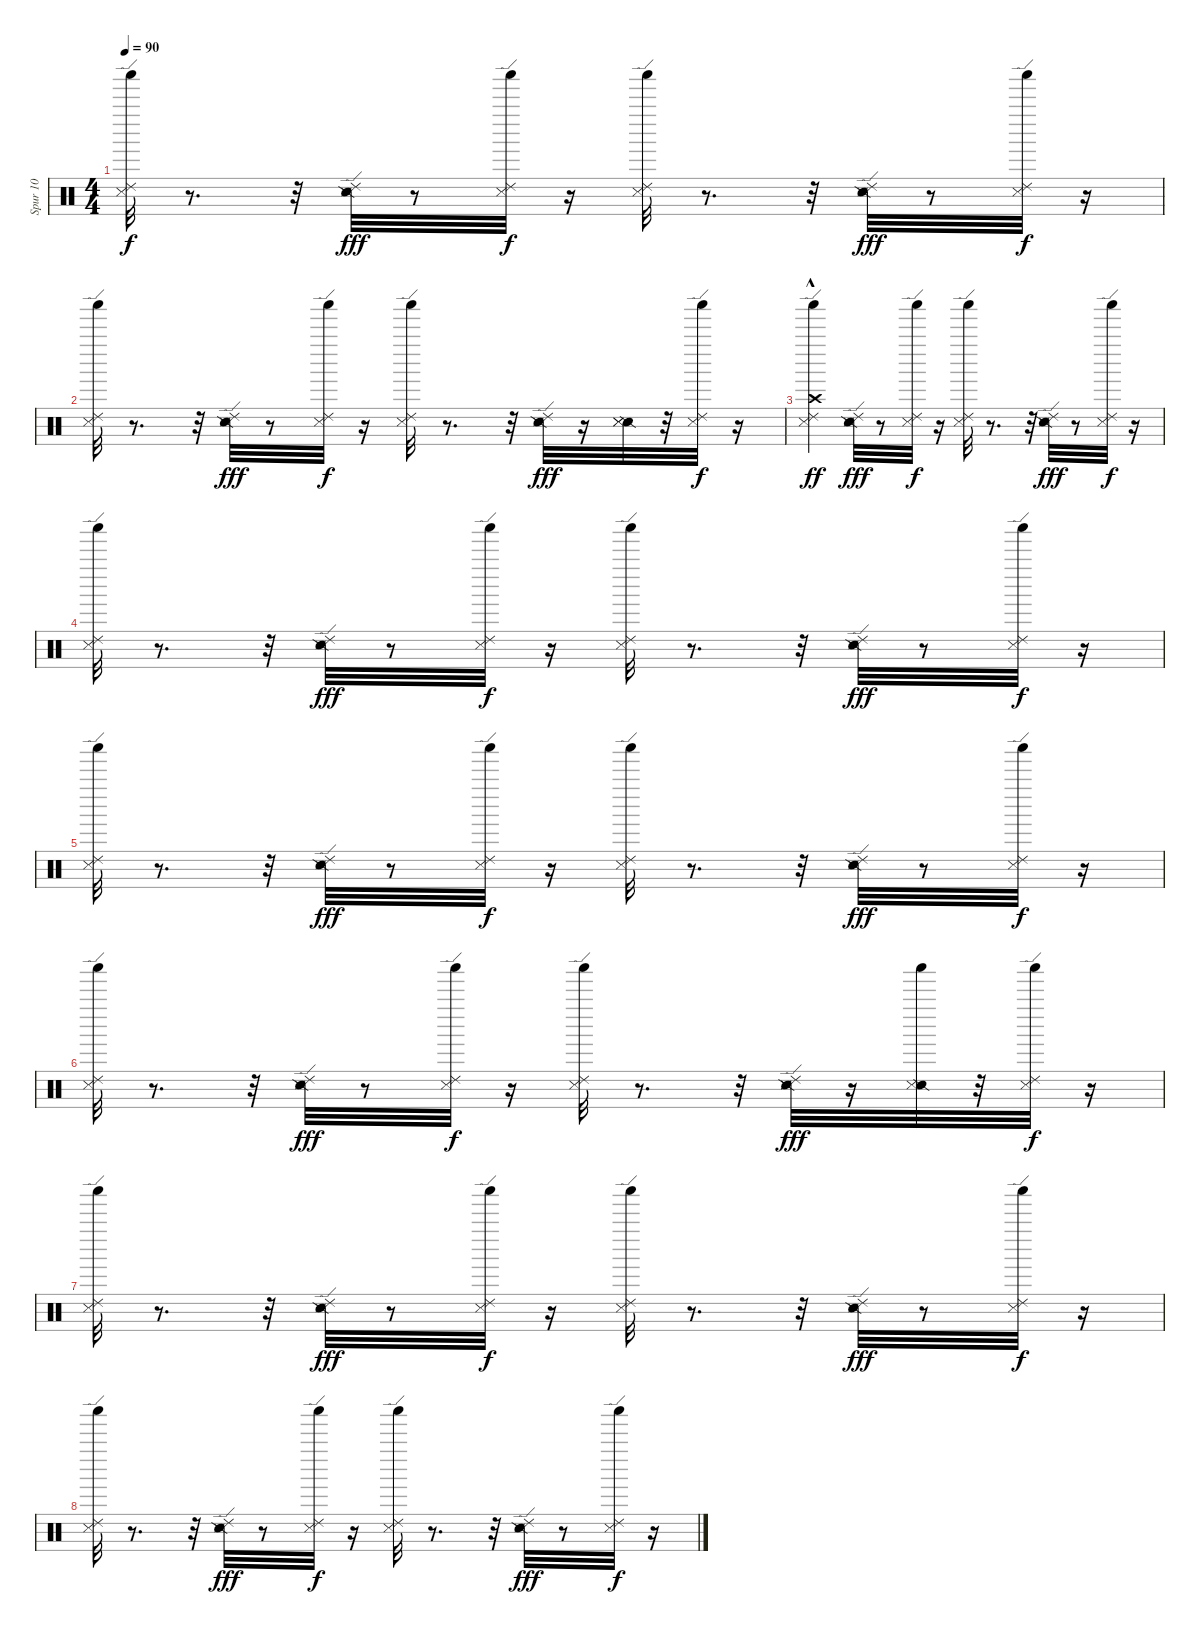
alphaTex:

\track ("Spur 10" "Spur 10") {instrument percussion}
\staff {score}
\articulation defaults
\ts (4 4)
\tempo 90
\clef neutral
\ks c
("Shaker (hit)" "Ride (edge) 2" "Metronome (hit)").32{dy f} r.8{d} r.32 ("Ride (edge) 2" "Snare (side stick) 2" "Snare (side stick) 3").32{dy fff} r.8 ("Ride (edge) 2" "Shaker (hit)" "Metronome (hit)").32{dy f} r.16 ("Shaker (hit)" "Ride (edge) 2" "Metronome (hit)").32 r.8{d} r.32 ("Ride (edge) 2" "Snare (side stick) 2" "Snare (side stick) 3").32{dy fff} r.8 ("Shaker (hit)" "Ride (edge) 2" "Metronome (hit)").32{dy f} r.16 |
("Ride (edge) 2" "Shaker (hit)" "Metronome (hit)").32 r.8{d} r.32 ("Ride (edge) 2" "Snare (side stick) 2" "Snare (side stick) 3").32{dy fff} r.8 ("Shaker (hit)" "Ride (edge) 2" "Metronome (hit)").32{dy f} r.16 ("Ride (edge) 2" "Shaker (hit)" "Metronome (hit)").32 r.8{d} r.32 ("Ride (edge) 2" "Snare (side stick) 2" "Snare (side stick) 3").32{dy fff} r.16 ("Snare (side stick) 2" "Metronome (hit)" "Snare (side stick) 3").32 r.32 ("Shaker (hit)" "Ride (edge) 2" "Metronome (hit)").32{dy f} r.16 |
("Shaker (hit)" "Ride (edge) 2" "Metronome (hit)" "Crash high (hit)"{hac}).4{dy ff} ("Ride (edge) 2" "Snare (side stick) 2" "Snare (side stick) 3").32{dy fff} r.8 ("Ride (edge) 2" "Shaker (hit)" "Metronome (hit)").32{dy f} r.16 ("Ride (edge) 2" "Shaker (hit)" "Metronome (hit)").32 r.8{d} r.32 ("Ride (edge) 2" "Snare (side stick) 2" "Snare (side stick) 3").32{dy fff} r.8 ("Shaker (hit)" "Ride (edge) 2" "Metronome (hit)").32{dy f} r.16 |
("Shaker (hit)" "Ride (edge) 2" "Metronome (hit)").32 r.8{d} r.32 ("Ride (edge) 2" "Snare (side stick) 2" "Snare (side stick) 3").32{dy fff} r.8 ("Shaker (hit)" "Ride (edge) 2" "Metronome (hit)").32{dy f} r.16 ("Ride (edge) 2" "Shaker (hit)" "Metronome (hit)").32 r.8{d} r.32 ("Ride (edge) 2" "Snare (side stick) 2" "Snare (side stick) 3").32{dy fff} r.8 ("Shaker (hit)" "Ride (edge) 2" "Metronome (hit)").32{dy f} r.16 |
("Shaker (hit)" "Ride (edge) 2" "Metronome (hit)").32 r.8{d} r.32 ("Ride (edge) 2" "Snare (side stick) 2" "Snare (side stick) 3").32{dy fff} r.8 ("Shaker (hit)" "Ride (edge) 2" "Metronome (hit)").32{dy f} r.16 ("Ride (edge) 2" "Shaker (hit)" "Metronome (hit)").32 r.8{d} r.32 ("Ride (edge) 2" "Snare (side stick) 2" "Snare (side stick) 3").32{dy fff} r.8 ("Shaker (hit)" "Ride (edge) 2" "Metronome (hit)").32{dy f} r.16 |
("Shaker (hit)" "Ride (edge) 2" "Metronome (hit)").32 r.8{d} r.32 ("Ride (edge) 2" "Snare (side stick) 2" "Snare (side stick) 3").32{dy fff} r.8 ("Shaker (hit)" "Ride (edge) 2" "Metronome (hit)").32{dy f} r.16 ("Ride (edge) 2" "Shaker (hit)" "Metronome (hit)").32 r.8{d} r.32 ("Ride (edge) 2" "Snare (side stick) 2" "Metronome (hit)" "Snare (side stick) 3").32{dy fff} r.16 ("Shaker (hit)" "Snare (side stick) 2" "Snare (side stick) 3").32 r.32 ("Shaker (hit)" "Ride (edge) 2" "Metronome (hit)").32{dy f} r.16 |
("Ride (edge) 2" "Shaker (hit)" "Metronome (hit)").32 r.8{d} r.32 ("Ride (edge) 2" "Snare (side stick) 2" "Snare (side stick) 3").32{dy fff} r.8 ("Shaker (hit)" "Ride (edge) 2" "Metronome (hit)").32{dy f} r.16 ("Ride (edge) 2" "Shaker (hit)" "Metronome (hit)").32 r.8{d} r.32 ("Ride (edge) 2" "Snare (side stick) 2" "Snare (side stick) 3").32{dy fff} r.8 ("Shaker (hit)" "Ride (edge) 2" "Metronome (hit)").32{dy f} r.16 |
("Ride (edge) 2" "Shaker (hit)" "Metronome (hit)").32 r.8{d} r.32 ("Ride (edge) 2" "Snare (side stick) 2" "Snare (side stick) 3").32{dy fff} r.8 ("Shaker (hit)" "Ride (edge) 2" "Metronome (hit)").32{dy f} r.16 ("Shaker (hit)" "Ride (edge) 2" "Metronome (hit)").32 r.8{d} r.32 ("Ride (edge) 2" "Snare (side stick) 2" "Snare (side stick) 3").32{dy fff} r.8 ("Ride (edge) 2" "Shaker (hit)" "Metronome (hit)").32{dy f} r.16
